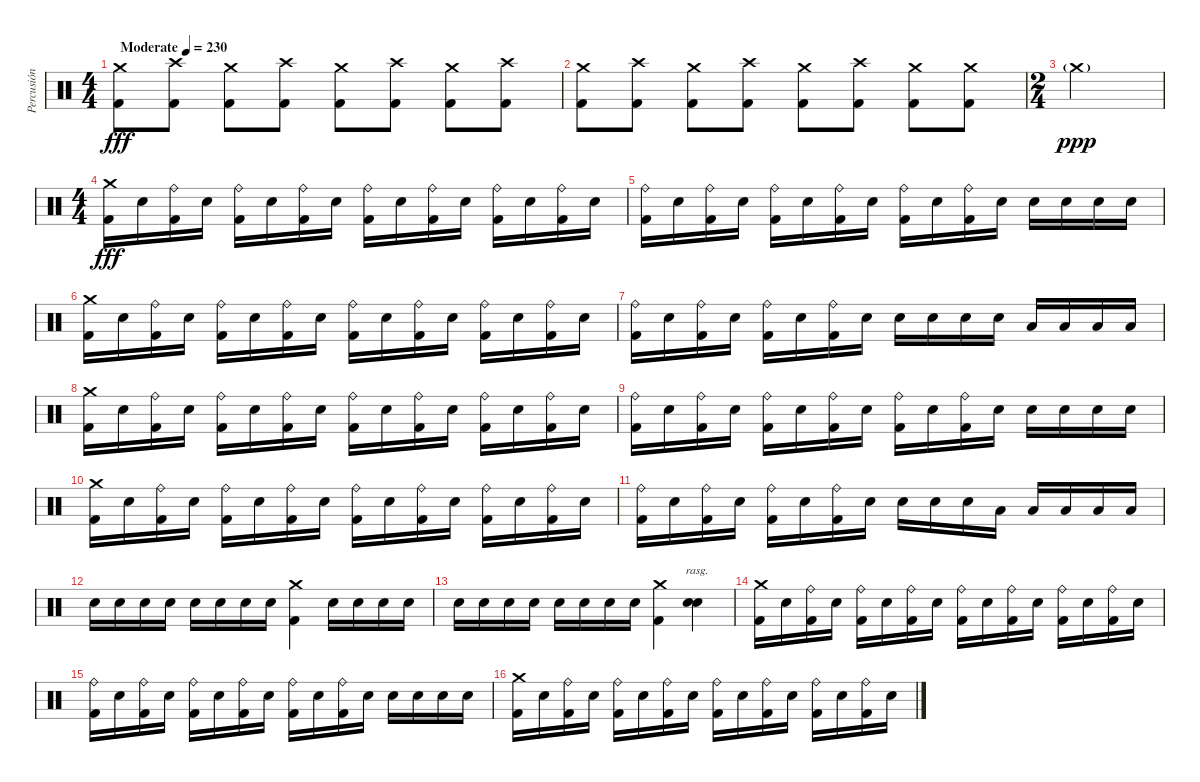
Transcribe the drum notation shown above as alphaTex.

\track ("Percusión" "Percusión") {instrument percussion}
\staff {score}
\articulation defaults
\ts (4 4)
\tempo (230 "Moderate")
\clef neutral
\ks c
("Crash medium (hit)" "Kick (hit) 2").8{dy fff} ("Crash high (hit)" "Kick (hit) 2").8 ("Crash medium (hit)" "Kick (hit) 2").8 ("Crash high (hit)" "Kick (hit) 2").8 ("Crash medium (hit)" "Kick (hit) 2").8 ("Crash high (hit)" "Kick (hit) 2").8 ("Crash medium (hit)" "Kick (hit) 2").8 ("Crash high (hit)" "Kick (hit) 2").8 |
("Crash medium (hit)" "Kick (hit) 2").8 ("Crash high (hit)" "Kick (hit) 2").8 ("Crash medium (hit)" "Kick (hit) 2").8 ("Crash high (hit)" "Kick (hit) 2").8 ("Crash medium (hit)" "Kick (hit) 2").8 ("Crash high (hit)" "Kick (hit) 2").8 ("Crash medium (hit)" "Kick (hit) 2").8 ("Crash medium (hit)" "Kick (hit) 2").8 |
\ts (2 4)
"Crash medium (hit)"{g}.2{dy ppp} |
\ts (4 4)
("Crash medium (hit)" "Kick (hit) 2").16{dy fff} "Electric Snare (hit)".16 ("Ride (bell)" "Kick (hit) 2").16 "Electric Snare (hit)".16 ("Ride (bell)" "Kick (hit) 2").16 "Electric Snare (hit)".16 ("Ride (bell)" "Kick (hit) 2").16 "Electric Snare (hit)".16 ("Ride (bell)" "Kick (hit) 2").16 "Electric Snare (hit)".16 ("Ride (bell)" "Kick (hit) 2").16 "Electric Snare (hit)".16 ("Ride (bell)" "Kick (hit) 2").16 "Electric Snare (hit)".16 ("Ride (bell)" "Kick (hit) 2").16 "Electric Snare (hit)".16 |
("Ride (bell)" "Kick (hit) 2").16 "Electric Snare (hit)".16 ("Ride (bell)" "Kick (hit) 2").16 "Electric Snare (hit)".16 ("Ride (bell)" "Kick (hit) 2").16 "Electric Snare (hit)".16 ("Ride (bell)" "Kick (hit) 2").16 "Electric Snare (hit)".16 ("Ride (bell)" "Kick (hit) 2").16 "Electric Snare (hit)".16 ("Ride (bell)" "Kick (hit) 2").16 "Electric Snare (hit)".16 "Electric Snare (hit)".16 "Electric Snare (hit)".16 "Electric Snare (hit)".16 "Electric Snare (hit)".16 |
("Crash medium (hit)" "Kick (hit) 2").16 "Electric Snare (hit)".16 ("Ride (bell)" "Kick (hit) 2").16 "Electric Snare (hit)".16 ("Ride (bell)" "Kick (hit) 2").16 "Electric Snare (hit)".16 ("Ride (bell)" "Kick (hit) 2").16 "Electric Snare (hit)".16 ("Ride (bell)" "Kick (hit) 2").16 "Electric Snare (hit)".16 ("Ride (bell)" "Kick (hit) 2").16 "Electric Snare (hit)".16 ("Ride (bell)" "Kick (hit) 2").16 "Electric Snare (hit)".16 ("Ride (bell)" "Kick (hit) 2").16 "Electric Snare (hit)".16 |
("Ride (bell)" "Kick (hit) 2").16 "Electric Snare (hit)".16 ("Ride (bell)" "Kick (hit) 2").16 "Electric Snare (hit)".16 ("Ride (bell)" "Kick (hit) 2").16 "Electric Snare (hit)".16 ("Ride (bell)" "Kick (hit) 2").16 "Electric Snare (hit)".16 "Electric Snare (hit)".16 "Electric Snare (hit)".16 "Electric Snare (hit)".16 "Electric Snare (hit)".16 "Low Tom (hit)".16 "Low Tom (hit)".16 "Low Tom (hit)".16 "Low Tom (hit)".16 |
("Crash medium (hit)" "Kick (hit) 2").16 "Electric Snare (hit)".16 ("Ride (bell)" "Kick (hit) 2").16 "Electric Snare (hit)".16 ("Ride (bell)" "Kick (hit) 2").16 "Electric Snare (hit)".16 ("Ride (bell)" "Kick (hit) 2").16 "Electric Snare (hit)".16 ("Ride (bell)" "Kick (hit) 2").16 "Electric Snare (hit)".16 ("Ride (bell)" "Kick (hit) 2").16 "Electric Snare (hit)".16 ("Ride (bell)" "Kick (hit) 2").16 "Electric Snare (hit)".16 ("Ride (bell)" "Kick (hit) 2").16 "Electric Snare (hit)".16 |
("Ride (bell)" "Kick (hit) 2").16 "Electric Snare (hit)".16 ("Ride (bell)" "Kick (hit) 2").16 "Electric Snare (hit)".16 ("Ride (bell)" "Kick (hit) 2").16 "Electric Snare (hit)".16 ("Ride (bell)" "Kick (hit) 2").16 "Electric Snare (hit)".16 ("Ride (bell)" "Kick (hit) 2").16 "Electric Snare (hit)".16 ("Ride (bell)" "Kick (hit) 2").16 "Electric Snare (hit)".16 "Electric Snare (hit)".16 "Electric Snare (hit)".16 "Electric Snare (hit)".16 "Electric Snare (hit)".16 |
("Crash medium (hit)" "Kick (hit) 2").16 "Electric Snare (hit)".16 ("Ride (bell)" "Kick (hit) 2").16 "Electric Snare (hit)".16 ("Ride (bell)" "Kick (hit) 2").16 "Electric Snare (hit)".16 ("Ride (bell)" "Kick (hit) 2").16 "Electric Snare (hit)".16 ("Ride (bell)" "Kick (hit) 2").16 "Electric Snare (hit)".16 ("Ride (bell)" "Kick (hit) 2").16 "Electric Snare (hit)".16 ("Ride (bell)" "Kick (hit) 2").16 "Electric Snare (hit)".16 ("Ride (bell)" "Kick (hit) 2").16 "Electric Snare (hit)".16 |
("Ride (bell)" "Kick (hit) 2").16 "Electric Snare (hit)".16 ("Ride (bell)" "Kick (hit) 2").16 "Electric Snare (hit)".16 ("Ride (bell)" "Kick (hit) 2").16 "Electric Snare (hit)".16 ("Ride (bell)" "Kick (hit) 2").16 "Electric Snare (hit)".16 "Electric Snare (hit)".16 "Electric Snare (hit)".16 "Electric Snare (hit)".16 "Low Tom (hit)".16 "Low Tom (hit)".16 "Low Tom (hit)".16 "Low Tom (hit)".16 "Low Tom (hit)".16 |
"Electric Snare (hit)".16 "Electric Snare (hit)".16 "Electric Snare (hit)".16 "Electric Snare (hit)".16 "Electric Snare (hit)".16 "Electric Snare (hit)".16 "Electric Snare (hit)".16 "Electric Snare (hit)".16 ("Crash medium (hit)" "Kick (hit) 2").4 "Electric Snare (hit)".16 "Electric Snare (hit)".16 "Electric Snare (hit)".16 "Electric Snare (hit)".16 |
"Electric Snare (hit)".16 "Electric Snare (hit)".16 "Electric Snare (hit)".16 "Electric Snare (hit)".16 "Electric Snare (hit)".16 "Electric Snare (hit)".16 "Electric Snare (hit)".16 "Electric Snare (hit)".16 ("Crash medium (hit)" "Kick (hit) 2").4 ("Electric Snare (hit)" "Electric Snare (hit)").4{bu 240 rasg ii} |
("Crash medium (hit)" "Kick (hit) 2").16 "Electric Snare (hit)".16 ("Ride (bell)" "Kick (hit) 2").16 "Electric Snare (hit)".16 ("Ride (bell)" "Kick (hit) 2").16 "Electric Snare (hit)".16 ("Ride (bell)" "Kick (hit) 2").16 "Electric Snare (hit)".16 ("Ride (bell)" "Kick (hit) 2").16 "Electric Snare (hit)".16 ("Ride (bell)" "Kick (hit) 2").16 "Electric Snare (hit)".16 ("Ride (bell)" "Kick (hit) 2").16 "Electric Snare (hit)".16 ("Ride (bell)" "Kick (hit) 2").16 "Electric Snare (hit)".16 |
("Ride (bell)" "Kick (hit) 2").16 "Electric Snare (hit)".16 ("Ride (bell)" "Kick (hit) 2").16 "Electric Snare (hit)".16 ("Ride (bell)" "Kick (hit) 2").16 "Electric Snare (hit)".16 ("Ride (bell)" "Kick (hit) 2").16 "Electric Snare (hit)".16 ("Ride (bell)" "Kick (hit) 2").16 "Electric Snare (hit)".16 ("Ride (bell)" "Kick (hit) 2").16 "Electric Snare (hit)".16 "Electric Snare (hit)".16 "Electric Snare (hit)".16 "Electric Snare (hit)".16 "Electric Snare (hit)".16 |
("Crash medium (hit)" "Kick (hit) 2").16 "Electric Snare (hit)".16 ("Ride (bell)" "Kick (hit) 2").16 "Electric Snare (hit)".16 ("Ride (bell)" "Kick (hit) 2").16 "Electric Snare (hit)".16 ("Ride (bell)" "Kick (hit) 2").16 "Electric Snare (hit)".16 ("Ride (bell)" "Kick (hit) 2").16 "Electric Snare (hit)".16 ("Ride (bell)" "Kick (hit) 2").16 "Electric Snare (hit)".16 ("Ride (bell)" "Kick (hit) 2").16 "Electric Snare (hit)".16 ("Ride (bell)" "Kick (hit) 2").16 "Electric Snare (hit)".16
